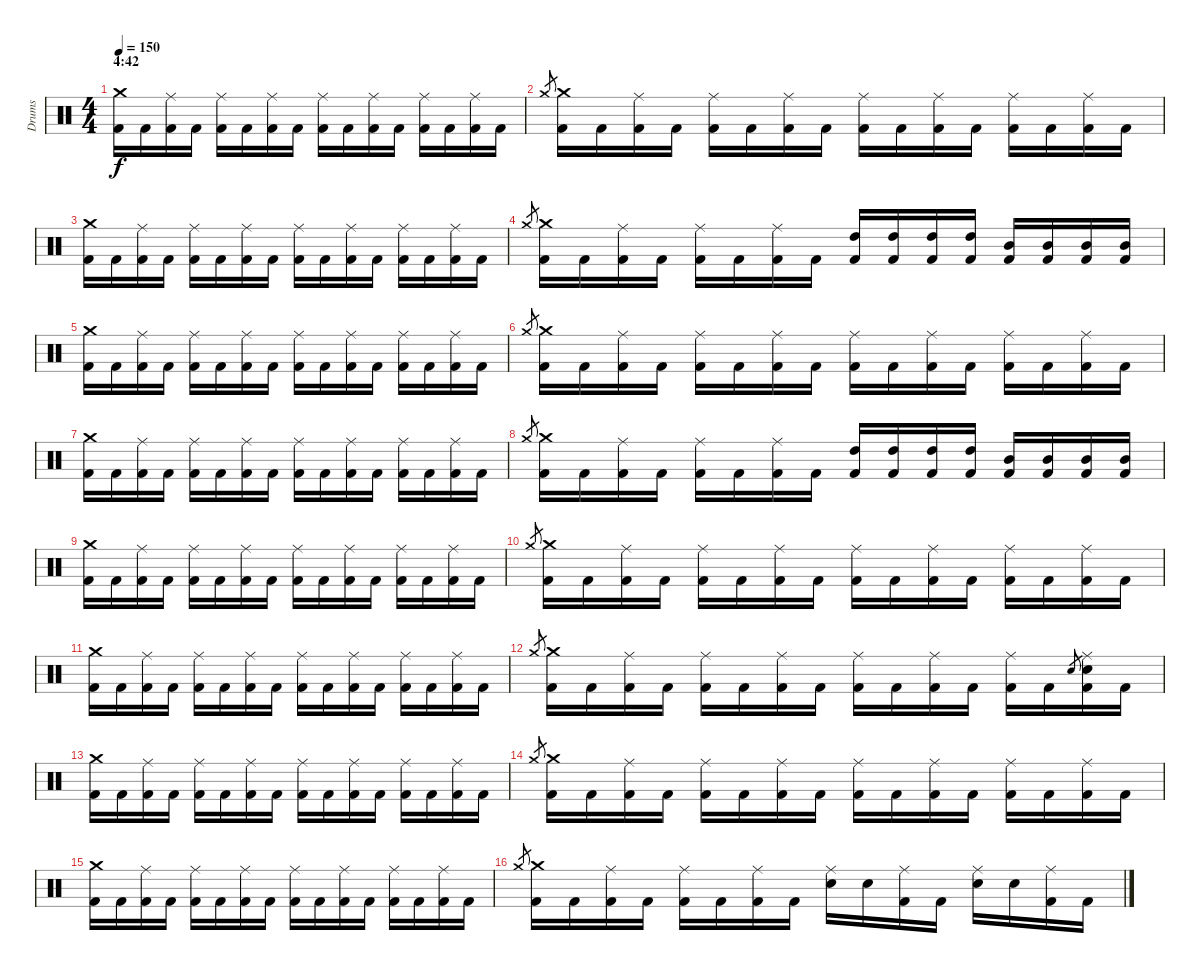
\track ("Drums" "Drums") {instrument percussion}
\staff {score}
\articulation defaults
\ts (4 4)
\section ("" "4:42")
\tempo 150
\clef neutral
\ks c
("Crash medium (hit)" "Kick (hit) 2").16{dy f} "Kick (hit) 2".16 ("Ride (middle)" "Kick (hit) 2").16 "Kick (hit) 2".16 ("Ride (middle)" "Kick (hit) 2").16 "Kick (hit) 2".16 ("Ride (middle)" "Kick (hit) 2").16 "Kick (hit) 2".16 ("Ride (middle)" "Kick (hit) 2").16 "Kick (hit) 2".16 ("Ride (middle)" "Kick (hit) 2").16 "Kick (hit) 2".16 ("Ride (middle)" "Kick (hit) 2").16 "Kick (hit) 2".16 ("Ride (middle)" "Kick (hit) 2").16 "Kick (hit) 2".16 |
"Crash medium (hit)".8{gr} ("Crash medium (hit)" "Kick (hit) 2").16 "Kick (hit) 2".16 ("Ride (middle)" "Kick (hit) 2").16 "Kick (hit) 2".16 ("Ride (middle)" "Kick (hit) 2").16 "Kick (hit) 2".16 ("Ride (middle)" "Kick (hit) 2").16 "Kick (hit) 2".16 ("Ride (middle)" "Kick (hit) 2").16 "Kick (hit) 2".16 ("Ride (middle)" "Kick (hit) 2").16 "Kick (hit) 2".16 ("Ride (middle)" "Kick (hit) 2").16 "Kick (hit) 2".16 ("Ride (middle)" "Kick (hit) 2").16 "Kick (hit) 2".16 |
("Crash medium (hit)" "Kick (hit) 2").16 "Kick (hit) 2".16 ("Ride (middle)" "Kick (hit) 2").16 "Kick (hit) 2".16 ("Ride (middle)" "Kick (hit) 2").16 "Kick (hit) 2".16 ("Ride (middle)" "Kick (hit) 2").16 "Kick (hit) 2".16 ("Ride (middle)" "Kick (hit) 2").16 "Kick (hit) 2".16 ("Ride (middle)" "Kick (hit) 2").16 "Kick (hit) 2".16 ("Ride (middle)" "Kick (hit) 2").16 "Kick (hit) 2".16 ("Ride (middle)" "Kick (hit) 2").16 "Kick (hit) 2".16 |
"Crash medium (hit)".8{gr} ("Crash medium (hit)" "Kick (hit) 2").16 "Kick (hit) 2".16 ("Ride (middle)" "Kick (hit) 2").16 "Kick (hit) 2".16 ("Ride (middle)" "Kick (hit) 2").16 "Kick (hit) 2".16 ("Ride (middle)" "Kick (hit) 2").16 "Kick (hit) 2".16 ("High Tom (hit)" "Kick (hit) 2").16 ("High Tom (hit)" "Kick (hit) 2").16 ("High Tom (hit)" "Kick (hit) 2").16 ("High Tom (hit)" "Kick (hit) 2").16 ("Mid Tom (hit)" "Kick (hit) 2").16 ("Mid Tom (hit)" "Kick (hit) 2").16 ("Mid Tom (hit)" "Kick (hit) 2").16 ("Mid Tom (hit)" "Kick (hit) 2").16 |
("Crash medium (hit)" "Kick (hit) 2").16 "Kick (hit) 2".16 ("Ride (middle)" "Kick (hit) 2").16 "Kick (hit) 2".16 ("Ride (middle)" "Kick (hit) 2").16 "Kick (hit) 2".16 ("Ride (middle)" "Kick (hit) 2").16 "Kick (hit) 2".16 ("Ride (middle)" "Kick (hit) 2").16 "Kick (hit) 2".16 ("Ride (middle)" "Kick (hit) 2").16 "Kick (hit) 2".16 ("Ride (middle)" "Kick (hit) 2").16 "Kick (hit) 2".16 ("Ride (middle)" "Kick (hit) 2").16 "Kick (hit) 2".16 |
"Crash medium (hit)".8{gr} ("Crash medium (hit)" "Kick (hit) 2").16 "Kick (hit) 2".16 ("Ride (middle)" "Kick (hit) 2").16 "Kick (hit) 2".16 ("Ride (middle)" "Kick (hit) 2").16 "Kick (hit) 2".16 ("Ride (middle)" "Kick (hit) 2").16 "Kick (hit) 2".16 ("Ride (middle)" "Kick (hit) 2").16 "Kick (hit) 2".16 ("Ride (middle)" "Kick (hit) 2").16 "Kick (hit) 2".16 ("Ride (middle)" "Kick (hit) 2").16 "Kick (hit) 2".16 ("Ride (middle)" "Kick (hit) 2").16 "Kick (hit) 2".16 |
("Crash medium (hit)" "Kick (hit) 2").16 "Kick (hit) 2".16 ("Ride (middle)" "Kick (hit) 2").16 "Kick (hit) 2".16 ("Ride (middle)" "Kick (hit) 2").16 "Kick (hit) 2".16 ("Ride (middle)" "Kick (hit) 2").16 "Kick (hit) 2".16 ("Ride (middle)" "Kick (hit) 2").16 "Kick (hit) 2".16 ("Ride (middle)" "Kick (hit) 2").16 "Kick (hit) 2".16 ("Ride (middle)" "Kick (hit) 2").16 "Kick (hit) 2".16 ("Ride (middle)" "Kick (hit) 2").16 "Kick (hit) 2".16 |
"Crash medium (hit)".8{gr} ("Crash medium (hit)" "Kick (hit) 2").16 "Kick (hit) 2".16 ("Ride (middle)" "Kick (hit) 2").16 "Kick (hit) 2".16 ("Ride (middle)" "Kick (hit) 2").16 "Kick (hit) 2".16 ("Ride (middle)" "Kick (hit) 2").16 "Kick (hit) 2".16 ("High Tom (hit)" "Kick (hit) 2").16 ("High Tom (hit)" "Kick (hit) 2").16 ("High Tom (hit)" "Kick (hit) 2").16 ("High Tom (hit)" "Kick (hit) 2").16 ("Mid Tom (hit)" "Kick (hit) 2").16 ("Mid Tom (hit)" "Kick (hit) 2").16 ("Mid Tom (hit)" "Kick (hit) 2").16 ("Mid Tom (hit)" "Kick (hit) 2").16 |
("Crash medium (hit)" "Kick (hit) 2").16 "Kick (hit) 2".16 ("Ride (middle)" "Kick (hit) 2").16 "Kick (hit) 2".16 ("Ride (middle)" "Kick (hit) 2").16 "Kick (hit) 2".16 ("Ride (middle)" "Kick (hit) 2").16 "Kick (hit) 2".16 ("Ride (middle)" "Kick (hit) 2").16 "Kick (hit) 2".16 ("Ride (middle)" "Kick (hit) 2").16 "Kick (hit) 2".16 ("Ride (middle)" "Kick (hit) 2").16 "Kick (hit) 2".16 ("Ride (middle)" "Kick (hit) 2").16 "Kick (hit) 2".16 |
"Crash medium (hit)".8{gr} ("Crash medium (hit)" "Kick (hit) 2").16 "Kick (hit) 2".16 ("Ride (middle)" "Kick (hit) 2").16 "Kick (hit) 2".16 ("Ride (middle)" "Kick (hit) 2").16 "Kick (hit) 2".16 ("Ride (middle)" "Kick (hit) 2").16 "Kick (hit) 2".16 ("Ride (middle)" "Kick (hit) 2").16 "Kick (hit) 2".16 ("Ride (middle)" "Kick (hit) 2").16 "Kick (hit) 2".16 ("Ride (middle)" "Kick (hit) 2").16 "Kick (hit) 2".16 ("Ride (middle)" "Kick (hit) 2").16 "Kick (hit) 2".16 |
("Crash medium (hit)" "Kick (hit) 2").16 "Kick (hit) 2".16 ("Ride (middle)" "Kick (hit) 2").16 "Kick (hit) 2".16 ("Ride (middle)" "Kick (hit) 2").16 "Kick (hit) 2".16 ("Ride (middle)" "Kick (hit) 2").16 "Kick (hit) 2".16 ("Ride (middle)" "Kick (hit) 2").16 "Kick (hit) 2".16 ("Ride (middle)" "Kick (hit) 2").16 "Kick (hit) 2".16 ("Ride (middle)" "Kick (hit) 2").16 "Kick (hit) 2".16 ("Ride (middle)" "Kick (hit) 2").16 "Kick (hit) 2".16 |
"Crash medium (hit)".8{gr} ("Crash medium (hit)" "Kick (hit) 2").16 "Kick (hit) 2".16 ("Ride (middle)" "Kick (hit) 2").16 "Kick (hit) 2".16 ("Ride (middle)" "Kick (hit) 2").16 "Kick (hit) 2".16 ("Ride (middle)" "Kick (hit) 2").16 "Kick (hit) 2".16 ("Ride (middle)" "Kick (hit) 2").16 "Kick (hit) 2".16 ("Ride (middle)" "Kick (hit) 2").16 "Kick (hit) 2".16 ("Ride (middle)" "Kick (hit) 2").16 "Kick (hit) 2".16 "Electric Snare (hit)".8{gr} ("Ride (middle)" "Electric Snare (hit)" "Kick (hit) 2").16 "Kick (hit) 2".16 |
("Crash medium (hit)" "Kick (hit) 2").16 "Kick (hit) 2".16 ("Ride (middle)" "Kick (hit) 2").16 "Kick (hit) 2".16 ("Ride (middle)" "Kick (hit) 2").16 "Kick (hit) 2".16 ("Ride (middle)" "Kick (hit) 2").16 "Kick (hit) 2".16 ("Ride (middle)" "Kick (hit) 2").16 "Kick (hit) 2".16 ("Ride (middle)" "Kick (hit) 2").16 "Kick (hit) 2".16 ("Ride (middle)" "Kick (hit) 2").16 "Kick (hit) 2".16 ("Ride (middle)" "Kick (hit) 2").16 "Kick (hit) 2".16 |
"Crash medium (hit)".8{gr} ("Crash medium (hit)" "Kick (hit) 2").16 "Kick (hit) 2".16 ("Ride (middle)" "Kick (hit) 2").16 "Kick (hit) 2".16 ("Ride (middle)" "Kick (hit) 2").16 "Kick (hit) 2".16 ("Ride (middle)" "Kick (hit) 2").16 "Kick (hit) 2".16 ("Ride (middle)" "Kick (hit) 2").16 "Kick (hit) 2".16 ("Ride (middle)" "Kick (hit) 2").16 "Kick (hit) 2".16 ("Ride (middle)" "Kick (hit) 2").16 "Kick (hit) 2".16 ("Ride (middle)" "Kick (hit) 2").16 "Kick (hit) 2".16 |
("Crash medium (hit)" "Kick (hit) 2").16 "Kick (hit) 2".16 ("Ride (middle)" "Kick (hit) 2").16 "Kick (hit) 2".16 ("Ride (middle)" "Kick (hit) 2").16 "Kick (hit) 2".16 ("Ride (middle)" "Kick (hit) 2").16 "Kick (hit) 2".16 ("Ride (middle)" "Kick (hit) 2").16 "Kick (hit) 2".16 ("Ride (middle)" "Kick (hit) 2").16 "Kick (hit) 2".16 ("Ride (middle)" "Kick (hit) 2").16 "Kick (hit) 2".16 ("Ride (middle)" "Kick (hit) 2").16 "Kick (hit) 2".16 |
"Crash medium (hit)".8{gr} ("Crash medium (hit)" "Kick (hit) 2").16 "Kick (hit) 2".16 ("Ride (middle)" "Kick (hit) 2").16 "Kick (hit) 2".16 ("Ride (middle)" "Kick (hit) 2").16 "Kick (hit) 2".16 ("Ride (middle)" "Kick (hit) 2").16 "Kick (hit) 2".16 ("Ride (middle)" "Electric Snare (hit)").16 "Electric Snare (hit)".16 ("Ride (middle)" "Kick (hit) 2").16 "Kick (hit) 2".16 ("Ride (middle)" "Electric Snare (hit)").16 "Electric Snare (hit)".16 ("Ride (middle)" "Kick (hit) 2").16 "Kick (hit) 2".16
